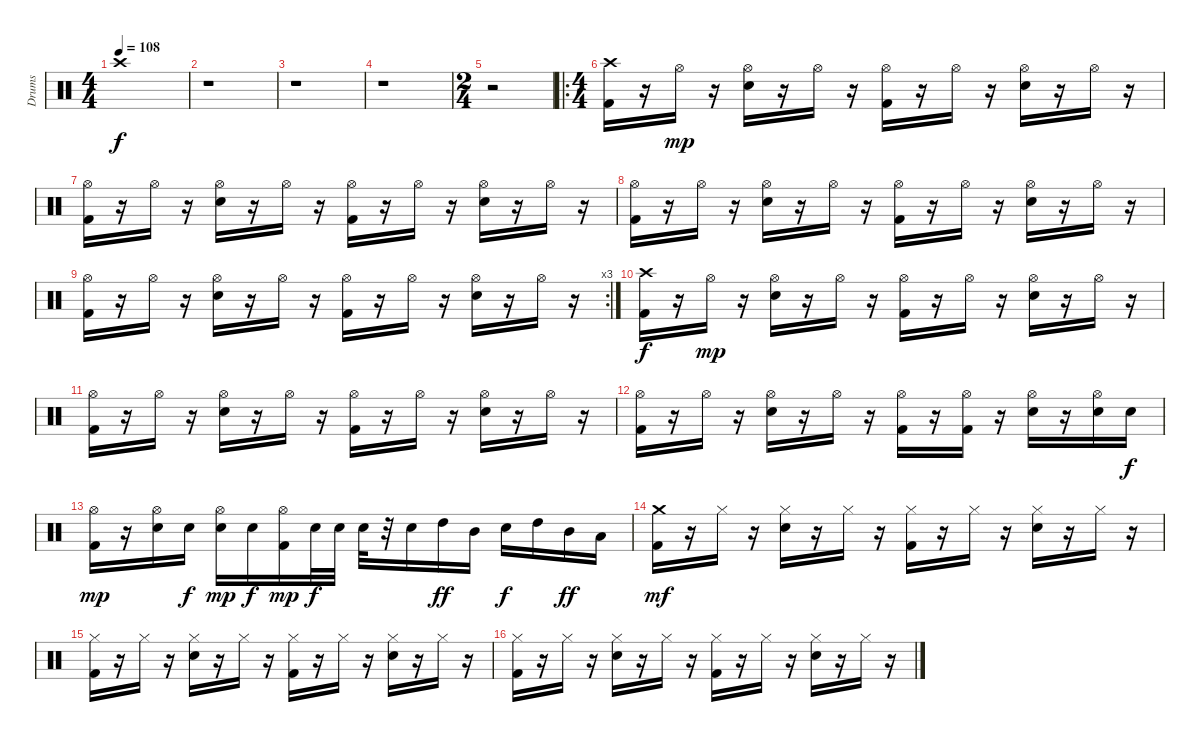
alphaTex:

\track ("Drums" "Drums") {instrument percussion}
\staff {score}
\articulation defaults
\ts (4 4)
\tempo 108
\clef neutral
\ks c "Crash high (hit)".1{dy f}
|
r.1 |
r.1 |
r.1 |
\ts (2 4)
r.2 |
\ro
\ts (4 4)
("Crash high (hit)" "Kick (hit) 2").16 r.16 "Hi-Hat (open)".16{dy mp} r.16 ("Hi-Hat (open)" "Snare (hit) 2").16 r.16 "Hi-Hat (open)".16 r.16 ("Hi-Hat (open)" "Kick (hit) 2").16 r.16 "Hi-Hat (open)".16 r.16 ("Hi-Hat (open)" "Snare (hit) 2").16 r.16 "Hi-Hat (open)".16 r.16 |
("Hi-Hat (open)" "Kick (hit) 2").16 r.16 "Hi-Hat (open)".16 r.16 ("Hi-Hat (open)" "Snare (hit) 2").16 r.16 "Hi-Hat (open)".16 r.16 ("Hi-Hat (open)" "Kick (hit) 2").16 r.16 "Hi-Hat (open)".16 r.16 ("Hi-Hat (open)" "Snare (hit) 2").16 r.16 "Hi-Hat (open)".16 r.16 |
("Hi-Hat (open)" "Kick (hit) 2").16 r.16 "Hi-Hat (open)".16 r.16 ("Hi-Hat (open)" "Snare (hit) 2").16 r.16 "Hi-Hat (open)".16 r.16 ("Hi-Hat (open)" "Kick (hit) 2").16 r.16 "Hi-Hat (open)".16 r.16 ("Hi-Hat (open)" "Snare (hit) 2").16 r.16 "Hi-Hat (open)".16 r.16 |
\rc 3
("Hi-Hat (open)" "Kick (hit) 2").16 r.16 "Hi-Hat (open)".16 r.16 ("Hi-Hat (open)" "Snare (hit) 2").16 r.16 "Hi-Hat (open)".16 r.16 ("Hi-Hat (open)" "Kick (hit) 2").16 r.16 "Hi-Hat (open)".16 r.16 ("Hi-Hat (open)" "Snare (hit) 2").16 r.16 "Hi-Hat (open)".16 r.16 |
("Crash high (hit)" "Kick (hit) 2").16{dy f} r.16 "Hi-Hat (open)".16{dy mp} r.16 ("Hi-Hat (open)" "Snare (hit) 2").16 r.16 "Hi-Hat (open)".16 r.16 ("Hi-Hat (open)" "Kick (hit) 2").16 r.16 "Hi-Hat (open)".16 r.16 ("Hi-Hat (open)" "Snare (hit) 2").16 r.16 "Hi-Hat (open)".16 r.16 |
("Hi-Hat (open)" "Kick (hit) 2").16 r.16 "Hi-Hat (open)".16 r.16 ("Hi-Hat (open)" "Snare (hit) 2").16 r.16 "Hi-Hat (open)".16 r.16 ("Hi-Hat (open)" "Kick (hit) 2").16 r.16 "Hi-Hat (open)".16 r.16 ("Hi-Hat (open)" "Snare (hit) 2").16 r.16 "Hi-Hat (open)".16 r.16 |
("Hi-Hat (open)" "Kick (hit) 2").16 r.16 "Hi-Hat (open)".16 r.16 ("Hi-Hat (open)" "Snare (hit) 2").16 r.16 "Hi-Hat (open)".16 r.16 ("Hi-Hat (open)" "Kick (hit) 2").16 r.16 ("Hi-Hat (open)" "Kick (hit) 2").16 r.16 ("Hi-Hat (open)" "Snare (hit) 2").16 r.16 ("Hi-Hat (open)" "Snare (hit) 2").16 "Snare (hit) 2".16{dy f} |
("Hi-Hat (open)" "Kick (hit) 2").16{dy mp} r.16 ("Hi-Hat (open)" "Snare (hit) 2").16 "Snare (hit) 2".16{dy f} ("Hi-Hat (open)" "Snare (hit) 2").16{dy mp} "Snare (hit) 2".16{dy f} ("Hi-Hat (open)" "Kick (hit) 2").16{dy mp} "Snare (hit) 2".32{dy f} "Snare (hit) 2".32 "Snare (hit) 2".32 r.32 "Snare (hit) 2".16 "High Tom (hit)".16{dy ff} "Mid Tom (hit)".16 "Snare (hit) 2".16{dy f} "High Tom (hit)".16 "Mid Tom (hit)".16{dy ff} "Low Tom (hit)".16 |
("Crash medium (hit)" "Kick (hit) 2").16{dy mf} r.16 "Hi-Hat (closed)".16 r.16 ("Hi-Hat (closed)" "Snare (hit) 2").16 r.16 "Hi-Hat (closed)".16 r.16 ("Hi-Hat (closed)" "Kick (hit) 2").16 r.16 "Hi-Hat (closed)".16 r.16 ("Hi-Hat (closed)" "Snare (hit) 2").16 r.16 "Hi-Hat (closed)".16 r.16 |
("Hi-Hat (closed)" "Kick (hit) 2").16 r.16 "Hi-Hat (closed)".16 r.16 ("Hi-Hat (closed)" "Snare (hit) 2").16 r.16 "Hi-Hat (closed)".16 r.16 ("Hi-Hat (closed)" "Kick (hit) 2").16 r.16 "Hi-Hat (closed)".16 r.16 ("Hi-Hat (closed)" "Snare (hit) 2").16 r.16 "Hi-Hat (closed)".16 r.16 |
("Hi-Hat (closed)" "Kick (hit) 2").16 r.16 "Hi-Hat (closed)".16 r.16 ("Hi-Hat (closed)" "Snare (hit) 2").16 r.16 "Hi-Hat (closed)".16 r.16 ("Hi-Hat (closed)" "Kick (hit) 2").16 r.16 "Hi-Hat (closed)".16 r.16 ("Hi-Hat (closed)" "Snare (hit) 2").16 r.16 "Hi-Hat (closed)".16 r.16
